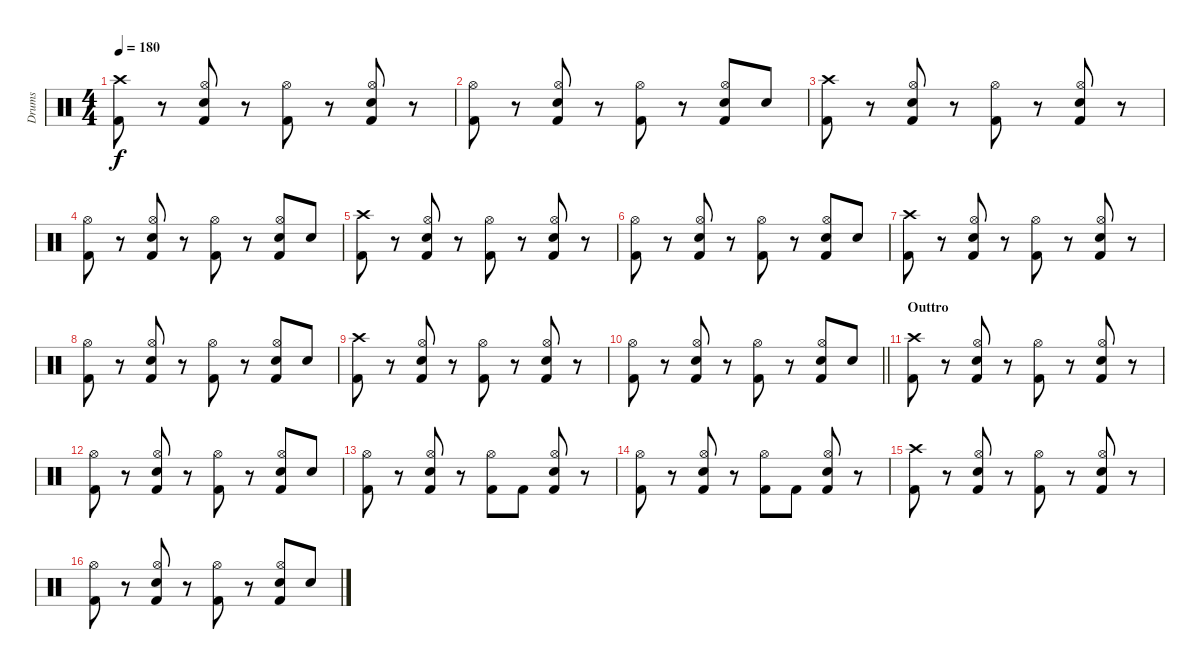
\track ("Drums" "Drums") {instrument percussion}
\staff {score}
\articulation defaults
\ts (4 4)
\tempo 180
\clef neutral
\ks c
("Kick (hit) 2" "Crash high (hit)").8{dy f} r.8 ("Hi-Hat (open)" "Kick (hit) 2" "Snare (hit) 2").8 r.8 ("Hi-Hat (open)" "Kick (hit) 2").8 r.8 ("Hi-Hat (open)" "Kick (hit) 2" "Snare (hit) 2").8 r.8 |
("Kick (hit) 2" "Hi-Hat (open)").8 r.8 ("Hi-Hat (open)" "Kick (hit) 2" "Snare (hit) 2").8 r.8 ("Hi-Hat (open)" "Kick (hit) 2").8 r.8 ("Hi-Hat (open)" "Kick (hit) 2" "Snare (hit) 2").8 "Snare (hit) 2".8 |
("Kick (hit) 2" "Crash high (hit)").8 r.8 ("Hi-Hat (open)" "Kick (hit) 2" "Snare (hit) 2").8 r.8 ("Hi-Hat (open)" "Kick (hit) 2").8 r.8 ("Hi-Hat (open)" "Kick (hit) 2" "Snare (hit) 2").8 r.8 |
("Kick (hit) 2" "Hi-Hat (open)").8 r.8 ("Hi-Hat (open)" "Kick (hit) 2" "Snare (hit) 2").8 r.8 ("Hi-Hat (open)" "Kick (hit) 2").8 r.8 ("Hi-Hat (open)" "Kick (hit) 2" "Snare (hit) 2").8 "Snare (hit) 2".8 |
("Kick (hit) 2" "Crash high (hit)").8 r.8 ("Hi-Hat (open)" "Kick (hit) 2" "Snare (hit) 2").8 r.8 ("Hi-Hat (open)" "Kick (hit) 2").8 r.8 ("Hi-Hat (open)" "Kick (hit) 2" "Snare (hit) 2").8 r.8 |
("Kick (hit) 2" "Hi-Hat (open)").8 r.8 ("Hi-Hat (open)" "Kick (hit) 2" "Snare (hit) 2").8 r.8 ("Hi-Hat (open)" "Kick (hit) 2").8 r.8 ("Hi-Hat (open)" "Kick (hit) 2" "Snare (hit) 2").8 "Snare (hit) 2".8 |
("Kick (hit) 2" "Crash high (hit)").8 r.8 ("Hi-Hat (open)" "Kick (hit) 2" "Snare (hit) 2").8 r.8 ("Hi-Hat (open)" "Kick (hit) 2").8 r.8 ("Hi-Hat (open)" "Kick (hit) 2" "Snare (hit) 2").8 r.8 |
("Kick (hit) 2" "Hi-Hat (open)").8 r.8 ("Hi-Hat (open)" "Kick (hit) 2" "Snare (hit) 2").8 r.8 ("Hi-Hat (open)" "Kick (hit) 2").8 r.8 ("Hi-Hat (open)" "Kick (hit) 2" "Snare (hit) 2").8 "Snare (hit) 2".8 |
("Kick (hit) 2" "Crash high (hit)").8 r.8 ("Hi-Hat (open)" "Kick (hit) 2" "Snare (hit) 2").8 r.8 ("Hi-Hat (open)" "Kick (hit) 2").8 r.8 ("Hi-Hat (open)" "Kick (hit) 2" "Snare (hit) 2").8 r.8 |
\barLineRight lightlight
("Kick (hit) 2" "Hi-Hat (open)").8 r.8 ("Hi-Hat (open)" "Kick (hit) 2" "Snare (hit) 2").8 r.8 ("Hi-Hat (open)" "Kick (hit) 2").8 r.8 ("Hi-Hat (open)" "Kick (hit) 2" "Snare (hit) 2").8 "Snare (hit) 2".8 |
\section ("" "Outtro")
("Kick (hit) 2" "Crash high (hit)").8 r.8 ("Hi-Hat (open)" "Kick (hit) 2" "Snare (hit) 2").8 r.8 ("Hi-Hat (open)" "Kick (hit) 2").8 r.8 ("Hi-Hat (open)" "Kick (hit) 2" "Snare (hit) 2").8 r.8 |
("Kick (hit) 2" "Hi-Hat (open)").8 r.8 ("Hi-Hat (open)" "Kick (hit) 2" "Snare (hit) 2").8 r.8 ("Hi-Hat (open)" "Kick (hit) 2").8 r.8 ("Hi-Hat (open)" "Kick (hit) 2" "Snare (hit) 2").8 "Snare (hit) 2".8 |
("Kick (hit) 2" "Hi-Hat (open)").8 r.8 ("Hi-Hat (open)" "Kick (hit) 2" "Snare (hit) 2").8 r.8 ("Hi-Hat (open)" "Kick (hit) 2").8 "Kick (hit) 2".8 ("Hi-Hat (open)" "Kick (hit) 2" "Snare (hit) 2").8 r.8 |
("Kick (hit) 2" "Hi-Hat (open)").8 r.8 ("Hi-Hat (open)" "Kick (hit) 2" "Snare (hit) 2").8 r.8 ("Hi-Hat (open)" "Kick (hit) 2").8 "Kick (hit) 2".8 ("Hi-Hat (open)" "Kick (hit) 2" "Snare (hit) 2").8 r.8 |
("Kick (hit) 2" "Crash high (hit)").8 r.8 ("Hi-Hat (open)" "Kick (hit) 2" "Snare (hit) 2").8 r.8 ("Hi-Hat (open)" "Kick (hit) 2").8 r.8 ("Hi-Hat (open)" "Kick (hit) 2" "Snare (hit) 2").8 r.8 |
("Kick (hit) 2" "Hi-Hat (open)").8 r.8 ("Hi-Hat (open)" "Kick (hit) 2" "Snare (hit) 2").8 r.8 ("Hi-Hat (open)" "Kick (hit) 2").8 r.8 ("Hi-Hat (open)" "Kick (hit) 2" "Snare (hit) 2").8 "Snare (hit) 2".8
